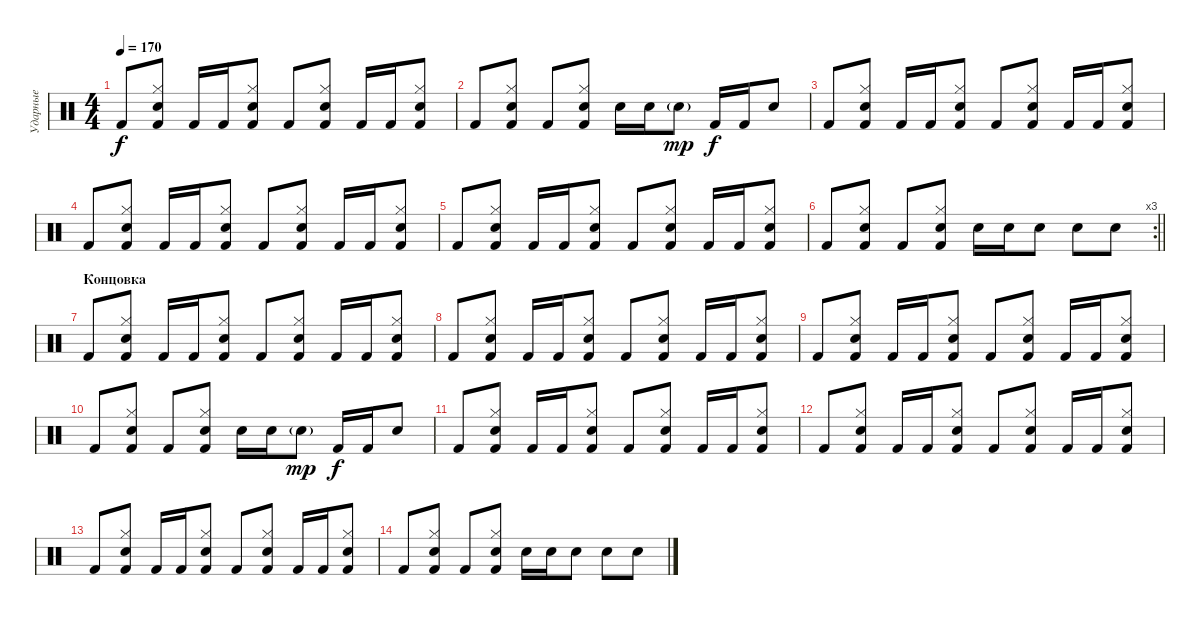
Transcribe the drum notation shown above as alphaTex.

\track ("Ударные" "Ударные") {instrument percussion}
\staff {score}
\articulation defaults
\ts (4 4)
\tempo 170
\clef neutral
\ks c "Kick (hit) 2".8{dy f}
("Hi-Hat (closed)" "Snare (hit) 2" "Kick (hit) 2").8 "Kick (hit) 2".16 "Kick (hit) 2".16 ("Hi-Hat (closed)" "Snare (hit) 2" "Kick (hit) 2").8 "Kick (hit) 2".8 ("Hi-Hat (closed)" "Snare (hit) 2" "Kick (hit) 2").8 "Kick (hit) 2".16 "Kick (hit) 2".16 ("Hi-Hat (closed)" "Snare (hit) 2" "Kick (hit) 2").8 |
"Kick (hit) 2".8 ("Hi-Hat (closed)" "Snare (hit) 2" "Kick (hit) 2").8 "Kick (hit) 2".8 ("Hi-Hat (closed)" "Snare (hit) 2" "Kick (hit) 2").8 "Snare (hit) 2".16 "Snare (hit) 2".16 "Snare (hit) 2"{g}.8{dy mp} "Kick (hit) 2".16{dy f} "Kick (hit) 2".16 "Snare (hit) 2".8 |
"Kick (hit) 2".8 ("Hi-Hat (closed)" "Snare (hit) 2" "Kick (hit) 2").8 "Kick (hit) 2".16 "Kick (hit) 2".16 ("Hi-Hat (closed)" "Snare (hit) 2" "Kick (hit) 2").8 "Kick (hit) 2".8 ("Hi-Hat (closed)" "Snare (hit) 2" "Kick (hit) 2").8 "Kick (hit) 2".16 "Kick (hit) 2".16 ("Hi-Hat (closed)" "Snare (hit) 2" "Kick (hit) 2").8 |
"Kick (hit) 2".8 ("Hi-Hat (closed)" "Snare (hit) 2" "Kick (hit) 2").8 "Kick (hit) 2".16 "Kick (hit) 2".16 ("Hi-Hat (closed)" "Snare (hit) 2" "Kick (hit) 2").8 "Kick (hit) 2".8 ("Hi-Hat (closed)" "Snare (hit) 2" "Kick (hit) 2").8 "Kick (hit) 2".16 "Kick (hit) 2".16 ("Hi-Hat (closed)" "Snare (hit) 2" "Kick (hit) 2").8 |
"Kick (hit) 2".8 ("Hi-Hat (closed)" "Snare (hit) 2" "Kick (hit) 2").8 "Kick (hit) 2".16 "Kick (hit) 2".16 ("Hi-Hat (closed)" "Snare (hit) 2" "Kick (hit) 2").8 "Kick (hit) 2".8 ("Hi-Hat (closed)" "Snare (hit) 2" "Kick (hit) 2").8 "Kick (hit) 2".16 "Kick (hit) 2".16 ("Hi-Hat (closed)" "Snare (hit) 2" "Kick (hit) 2").8 |
\rc 3
\barLineRight lightlight "Kick (hit) 2".8
("Hi-Hat (closed)" "Snare (hit) 2" "Kick (hit) 2").8 "Kick (hit) 2".8 ("Hi-Hat (closed)" "Snare (hit) 2" "Kick (hit) 2").8 "Snare (hit) 2".16 "Snare (hit) 2".16 "Snare (hit) 2".8 "Snare (hit) 2".8 "Snare (hit) 2".8 |
\section ("" "Концовка")
"Kick (hit) 2".8 ("Hi-Hat (closed)" "Snare (hit) 2" "Kick (hit) 2").8 "Kick (hit) 2".16 "Kick (hit) 2".16 ("Hi-Hat (closed)" "Snare (hit) 2" "Kick (hit) 2").8 "Kick (hit) 2".8 ("Hi-Hat (closed)" "Snare (hit) 2" "Kick (hit) 2").8 "Kick (hit) 2".16 "Kick (hit) 2".16 ("Hi-Hat (closed)" "Snare (hit) 2" "Kick (hit) 2").8 |
"Kick (hit) 2".8 ("Hi-Hat (closed)" "Snare (hit) 2" "Kick (hit) 2").8 "Kick (hit) 2".16 "Kick (hit) 2".16 ("Hi-Hat (closed)" "Snare (hit) 2" "Kick (hit) 2").8 "Kick (hit) 2".8 ("Hi-Hat (closed)" "Snare (hit) 2" "Kick (hit) 2").8 "Kick (hit) 2".16 "Kick (hit) 2".16 ("Hi-Hat (closed)" "Snare (hit) 2" "Kick (hit) 2").8 |
"Kick (hit) 2".8 ("Hi-Hat (closed)" "Snare (hit) 2" "Kick (hit) 2").8 "Kick (hit) 2".16 "Kick (hit) 2".16 ("Hi-Hat (closed)" "Snare (hit) 2" "Kick (hit) 2").8 "Kick (hit) 2".8 ("Hi-Hat (closed)" "Snare (hit) 2" "Kick (hit) 2").8 "Kick (hit) 2".16 "Kick (hit) 2".16 ("Hi-Hat (closed)" "Snare (hit) 2" "Kick (hit) 2").8 |
"Kick (hit) 2".8 ("Hi-Hat (closed)" "Snare (hit) 2" "Kick (hit) 2").8 "Kick (hit) 2".8 ("Hi-Hat (closed)" "Snare (hit) 2" "Kick (hit) 2").8 "Snare (hit) 2".16 "Snare (hit) 2".16 "Snare (hit) 2"{g}.8{dy mp} "Kick (hit) 2".16{dy f} "Kick (hit) 2".16 "Snare (hit) 2".8 |
"Kick (hit) 2".8 ("Hi-Hat (closed)" "Snare (hit) 2" "Kick (hit) 2").8 "Kick (hit) 2".16 "Kick (hit) 2".16 ("Hi-Hat (closed)" "Snare (hit) 2" "Kick (hit) 2").8 "Kick (hit) 2".8 ("Hi-Hat (closed)" "Snare (hit) 2" "Kick (hit) 2").8 "Kick (hit) 2".16 "Kick (hit) 2".16 ("Hi-Hat (closed)" "Snare (hit) 2" "Kick (hit) 2").8 |
"Kick (hit) 2".8 ("Hi-Hat (closed)" "Snare (hit) 2" "Kick (hit) 2").8 "Kick (hit) 2".16 "Kick (hit) 2".16 ("Hi-Hat (closed)" "Snare (hit) 2" "Kick (hit) 2").8 "Kick (hit) 2".8 ("Hi-Hat (closed)" "Snare (hit) 2" "Kick (hit) 2").8 "Kick (hit) 2".16 "Kick (hit) 2".16 ("Hi-Hat (closed)" "Snare (hit) 2" "Kick (hit) 2").8 |
"Kick (hit) 2".8 ("Hi-Hat (closed)" "Snare (hit) 2" "Kick (hit) 2").8 "Kick (hit) 2".16 "Kick (hit) 2".16 ("Hi-Hat (closed)" "Snare (hit) 2" "Kick (hit) 2").8 "Kick (hit) 2".8 ("Hi-Hat (closed)" "Snare (hit) 2" "Kick (hit) 2").8 "Kick (hit) 2".16 "Kick (hit) 2".16 ("Hi-Hat (closed)" "Snare (hit) 2" "Kick (hit) 2").8 |
"Kick (hit) 2".8 ("Hi-Hat (closed)" "Snare (hit) 2" "Kick (hit) 2").8 "Kick (hit) 2".8 ("Hi-Hat (closed)" "Snare (hit) 2" "Kick (hit) 2").8 "Snare (hit) 2".16 "Snare (hit) 2".16 "Snare (hit) 2".8 "Snare (hit) 2".8 "Snare (hit) 2".8
